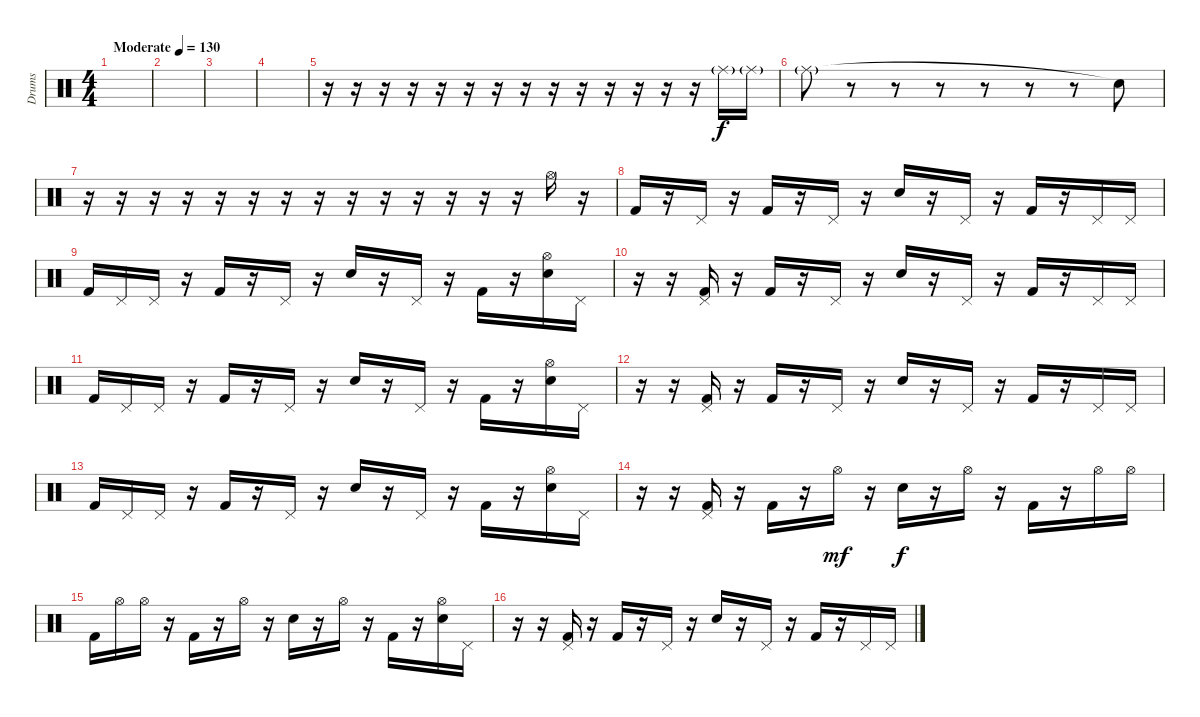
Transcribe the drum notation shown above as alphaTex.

\track ("Drums" "Drums") {instrument percussion}
\staff {score}
\articulation defaults
\ts (4 4)
\tempo (130 "Moderate")
\clef neutral
\ks c
|
|
|
|
r.16 r.16 r.16 r.16 r.16 r.16 r.16 r.16 r.16 r.16 r.16 r.16 r.16 r.16 "Ride (middle)"{g}.16 "Ride (middle)"{g}.16 |
"Ride (middle)"{g}.8 r.8 r.8 r.8 r.8 r.8 r.8 "Snare (hit)"{t}.8{dy f} |
r.16 r.16 r.16 r.16 r.16 r.16 r.16 r.16 r.16 r.16 r.16 r.16 r.16 r.16 "Hi-Hat (open)".16 r.16 |
"Kick (hit) 2".16 r.16 "Pedal Hi-Hat (hit)".16 r.16 "Kick (hit) 2".16 r.16 "Pedal Hi-Hat (hit)".16 r.16 "Electric Snare (hit)".16 r.16 "Pedal Hi-Hat (hit)".16 r.16 "Kick (hit) 2".16 r.16 "Pedal Hi-Hat (hit)".16 "Pedal Hi-Hat (hit)".16 |
"Kick (hit) 2".16 "Pedal Hi-Hat (hit)".16 "Pedal Hi-Hat (hit)".16 r.16 "Kick (hit) 2".16 r.16 "Pedal Hi-Hat (hit)".16 r.16 "Electric Snare (hit)".16 r.16 "Pedal Hi-Hat (hit)".16 r.16 "Kick (hit) 2".16 r.16 ("Hi-Hat (open)" "Electric Snare (hit)").16 "Pedal Hi-Hat (hit)".16 |
r.16 r.16 ("Pedal Hi-Hat (hit)" "Kick (hit) 2").16 r.16 "Kick (hit) 2".16 r.16 "Pedal Hi-Hat (hit)".16 r.16 "Electric Snare (hit)".16 r.16 "Pedal Hi-Hat (hit)".16 r.16 "Kick (hit) 2".16 r.16 "Pedal Hi-Hat (hit)".16 "Pedal Hi-Hat (hit)".16 |
"Kick (hit) 2".16 "Pedal Hi-Hat (hit)".16 "Pedal Hi-Hat (hit)".16 r.16 "Kick (hit) 2".16 r.16 "Pedal Hi-Hat (hit)".16 r.16 "Electric Snare (hit)".16 r.16 "Pedal Hi-Hat (hit)".16 r.16 "Kick (hit) 2".16 r.16 ("Hi-Hat (open)" "Electric Snare (hit)").16 "Pedal Hi-Hat (hit)".16 |
r.16 r.16 ("Pedal Hi-Hat (hit)" "Kick (hit) 2").16 r.16 "Kick (hit) 2".16 r.16 "Pedal Hi-Hat (hit)".16 r.16 "Electric Snare (hit)".16 r.16 "Pedal Hi-Hat (hit)".16 r.16 "Kick (hit) 2".16 r.16 "Pedal Hi-Hat (hit)".16 "Pedal Hi-Hat (hit)".16 |
"Kick (hit) 2".16 "Pedal Hi-Hat (hit)".16 "Pedal Hi-Hat (hit)".16 r.16 "Kick (hit) 2".16 r.16 "Pedal Hi-Hat (hit)".16 r.16 "Electric Snare (hit)".16 r.16 "Pedal Hi-Hat (hit)".16 r.16 "Kick (hit) 2".16 r.16 ("Hi-Hat (open)" "Electric Snare (hit)").16 "Pedal Hi-Hat (hit)".16 |
r.16 r.16 ("Pedal Hi-Hat (hit)" "Kick (hit) 2").16 r.16 "Kick (hit) 2".16 r.16 "Hi-Hat (open)".16{dy mf} r.16 "Electric Snare (hit)".16{dy f} r.16 "Hi-Hat (open)".16 r.16 "Kick (hit) 2".16 r.16 "Hi-Hat (open)".16 "Hi-Hat (open)".16 |
"Kick (hit) 2".16 "Hi-Hat (open)".16 "Hi-Hat (open)".16 r.16 "Kick (hit) 2".16 r.16 "Hi-Hat (open)".16 r.16 "Electric Snare (hit)".16 r.16 "Hi-Hat (open)".16 r.16 "Kick (hit) 2".16 r.16 ("Hi-Hat (open)" "Electric Snare (hit)").16 "Pedal Hi-Hat (hit)".16 |
r.16 r.16 ("Pedal Hi-Hat (hit)" "Kick (hit) 2").16 r.16 "Kick (hit) 2".16 r.16 "Pedal Hi-Hat (hit)".16 r.16 "Electric Snare (hit)".16 r.16 "Pedal Hi-Hat (hit)".16 r.16 "Kick (hit) 2".16 r.16 "Pedal Hi-Hat (hit)".16 "Pedal Hi-Hat (hit)".16
